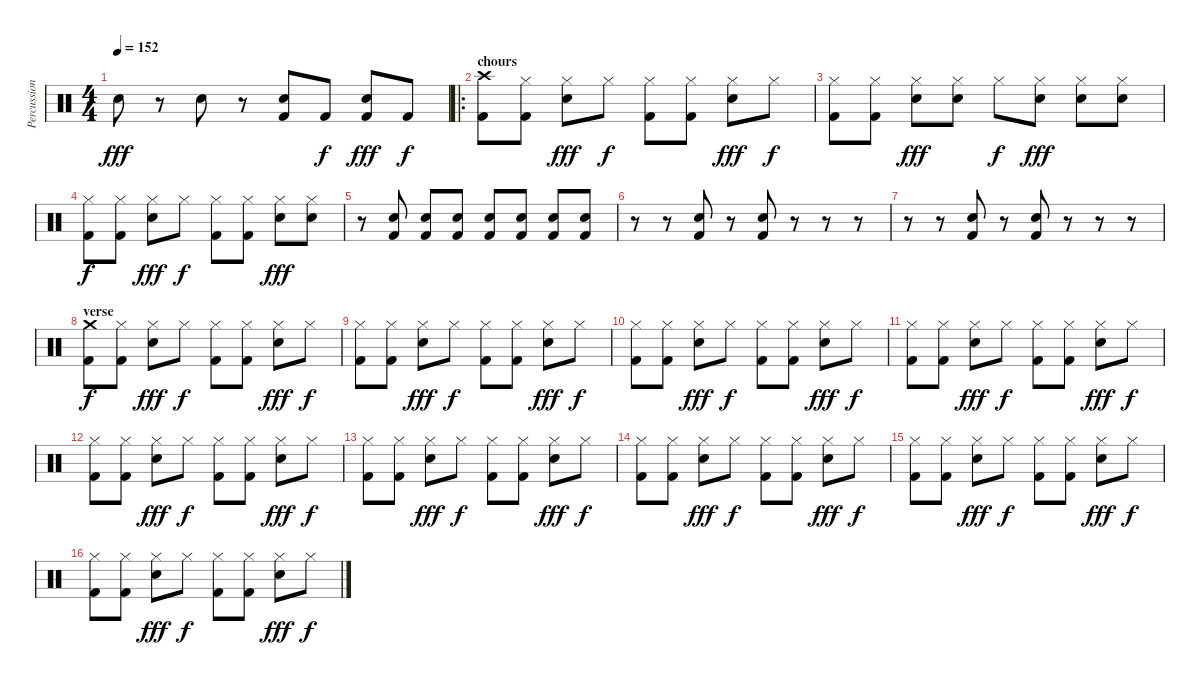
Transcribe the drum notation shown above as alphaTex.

\track ("Percussion" "Percussion") {instrument percussion}
\staff {score}
\articulation defaults
\ts (4 4)
\tempo 152
\clef neutral
\ks c "Electric Snare (hit)".8{dy fff}
r.8 "Electric Snare (hit)".8 r.8 ("Kick (hit) 2" "Electric Snare (hit)").8 "Kick (hit) 2".8{dy f} ("Kick (hit) 2" "Electric Snare (hit)").8{dy fff} "Kick (hit) 2".8{dy f} |
\ro
\section ("" "chours")
("Kick (hit) 2" "Crash high (hit)").8 ("Kick (hit) 2" "Hi-Hat (closed)").8 ("Electric Snare (hit)" "Hi-Hat (closed)").8{dy fff} "Hi-Hat (closed)".8{dy f} ("Kick (hit) 2" "Hi-Hat (closed)").8 ("Kick (hit) 2" "Hi-Hat (closed)").8 ("Electric Snare (hit)" "Hi-Hat (closed)").8{dy fff} "Hi-Hat (closed)".8{dy f} |
("Kick (hit) 2" "Hi-Hat (closed)").8 ("Kick (hit) 2" "Hi-Hat (closed)").8 ("Electric Snare (hit)" "Hi-Hat (closed)").8{dy fff} ("Electric Snare (hit)" "Hi-Hat (closed)").8 "Hi-Hat (closed)".8{dy f} ("Electric Snare (hit)" "Hi-Hat (closed)").8{dy fff} ("Electric Snare (hit)" "Hi-Hat (closed)").8 ("Electric Snare (hit)" "Hi-Hat (closed)").8 |
("Kick (hit) 2" "Hi-Hat (closed)").8{dy f} ("Kick (hit) 2" "Hi-Hat (closed)").8 ("Electric Snare (hit)" "Hi-Hat (closed)").8{dy fff} "Hi-Hat (closed)".8{dy f} ("Kick (hit) 2" "Hi-Hat (closed)").8 ("Kick (hit) 2" "Hi-Hat (closed)").8 ("Electric Snare (hit)" "Hi-Hat (closed)").8{dy fff} ("Electric Snare (hit)" "Hi-Hat (closed)").8 |
r.8 ("Kick (hit) 2" "Electric Snare (hit)").8 ("Kick (hit) 2" "Electric Snare (hit)").8 ("Kick (hit) 2" "Electric Snare (hit)").8 ("Kick (hit) 2" "Electric Snare (hit)").8 ("Kick (hit) 2" "Electric Snare (hit)").8 ("Kick (hit) 2" "Electric Snare (hit)").8 ("Kick (hit) 2" "Electric Snare (hit)").8 |
r.8 r.8 ("Kick (hit) 2" "Electric Snare (hit)").8 r.8 ("Kick (hit) 2" "Electric Snare (hit)").8 r.8 r.8 r.8 |
r.8 r.8 ("Kick (hit) 2" "Electric Snare (hit)").8 r.8 ("Kick (hit) 2" "Electric Snare (hit)").8 r.8 r.8 r.8 |
\section ("" "verse")
("Kick (hit) 2" "Crash medium (hit)").8{dy f} ("Kick (hit) 2" "Hi-Hat (closed)").8 ("Electric Snare (hit)" "Hi-Hat (closed)").8{dy fff} "Hi-Hat (closed)".8{dy f} ("Kick (hit) 2" "Hi-Hat (closed)").8 ("Kick (hit) 2" "Hi-Hat (closed)").8 ("Electric Snare (hit)" "Hi-Hat (closed)").8{dy fff} "Hi-Hat (closed)".8{dy f} |
("Kick (hit) 2" "Hi-Hat (closed)").8 ("Kick (hit) 2" "Hi-Hat (closed)").8 ("Electric Snare (hit)" "Hi-Hat (closed)").8{dy fff} "Hi-Hat (closed)".8{dy f} ("Kick (hit) 2" "Hi-Hat (closed)").8 ("Kick (hit) 2" "Hi-Hat (closed)").8 ("Electric Snare (hit)" "Hi-Hat (closed)").8{dy fff} "Hi-Hat (closed)".8{dy f} |
("Kick (hit) 2" "Hi-Hat (closed)").8 ("Kick (hit) 2" "Hi-Hat (closed)").8 ("Electric Snare (hit)" "Hi-Hat (closed)").8{dy fff} "Hi-Hat (closed)".8{dy f} ("Kick (hit) 2" "Hi-Hat (closed)").8 ("Kick (hit) 2" "Hi-Hat (closed)").8 ("Electric Snare (hit)" "Hi-Hat (closed)").8{dy fff} "Hi-Hat (closed)".8{dy f} |
("Kick (hit) 2" "Hi-Hat (closed)").8 ("Kick (hit) 2" "Hi-Hat (closed)").8 ("Electric Snare (hit)" "Hi-Hat (closed)").8{dy fff} "Hi-Hat (closed)".8{dy f} ("Kick (hit) 2" "Hi-Hat (closed)").8 ("Kick (hit) 2" "Hi-Hat (closed)").8 ("Electric Snare (hit)" "Hi-Hat (closed)").8{dy fff} "Hi-Hat (closed)".8{dy f} |
("Kick (hit) 2" "Hi-Hat (closed)").8 ("Kick (hit) 2" "Hi-Hat (closed)").8 ("Electric Snare (hit)" "Hi-Hat (closed)").8{dy fff} "Hi-Hat (closed)".8{dy f} ("Kick (hit) 2" "Hi-Hat (closed)").8 ("Kick (hit) 2" "Hi-Hat (closed)").8 ("Electric Snare (hit)" "Hi-Hat (closed)").8{dy fff} "Hi-Hat (closed)".8{dy f} |
("Kick (hit) 2" "Hi-Hat (closed)").8 ("Kick (hit) 2" "Hi-Hat (closed)").8 ("Electric Snare (hit)" "Hi-Hat (closed)").8{dy fff} "Hi-Hat (closed)".8{dy f} ("Kick (hit) 2" "Hi-Hat (closed)").8 ("Kick (hit) 2" "Hi-Hat (closed)").8 ("Electric Snare (hit)" "Hi-Hat (closed)").8{dy fff} "Hi-Hat (closed)".8{dy f} |
("Kick (hit) 2" "Hi-Hat (closed)").8 ("Kick (hit) 2" "Hi-Hat (closed)").8 ("Electric Snare (hit)" "Hi-Hat (closed)").8{dy fff} "Hi-Hat (closed)".8{dy f} ("Kick (hit) 2" "Hi-Hat (closed)").8 ("Kick (hit) 2" "Hi-Hat (closed)").8 ("Electric Snare (hit)" "Hi-Hat (closed)").8{dy fff} "Hi-Hat (closed)".8{dy f} |
("Kick (hit) 2" "Hi-Hat (closed)").8 ("Kick (hit) 2" "Hi-Hat (closed)").8 ("Electric Snare (hit)" "Hi-Hat (closed)").8{dy fff} "Hi-Hat (closed)".8{dy f} ("Kick (hit) 2" "Hi-Hat (closed)").8 ("Kick (hit) 2" "Hi-Hat (closed)").8 ("Electric Snare (hit)" "Hi-Hat (closed)").8{dy fff} "Hi-Hat (closed)".8{dy f} |
("Kick (hit) 2" "Hi-Hat (closed)").8 ("Kick (hit) 2" "Hi-Hat (closed)").8 ("Electric Snare (hit)" "Hi-Hat (closed)").8{dy fff} "Hi-Hat (closed)".8{dy f} ("Kick (hit) 2" "Hi-Hat (closed)").8 ("Kick (hit) 2" "Hi-Hat (closed)").8 ("Electric Snare (hit)" "Hi-Hat (closed)").8{dy fff} "Hi-Hat (closed)".8{dy f}
